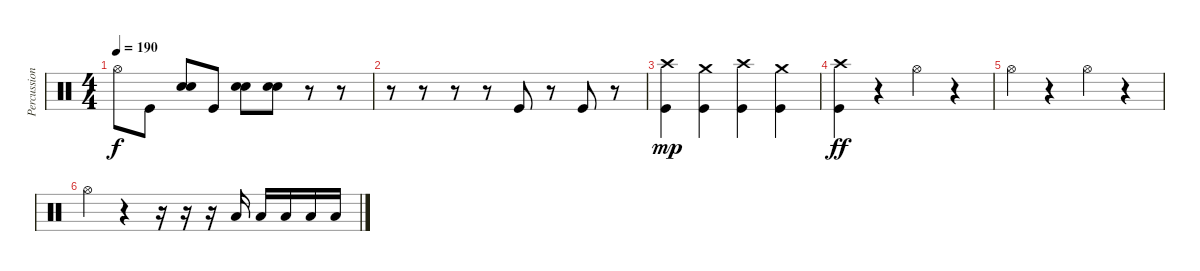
\track ("Percussion" "Percussion") {mute instrument percussion}
\staff {score}
\articulation defaults
\ts (4 4)
\tempo 190
\clef neutral
\ks c "Hi-Hat (open)".8{dy f} "Kick (hit)".8
("Snare (hit) 2" "Snare (hit) 2").8 "Kick (hit)".8 ("Snare (hit) 2" "Snare (hit) 2").8 ("Snare (hit) 2" "Snare (hit) 2").8 r.8 r.8 |
r.8 r.8 r.8 r.8 "Kick (hit)".8 r.8 "Kick (hit)".8 r.8 |
("Crash high (hit)" "Kick (hit)").4{dy mp} ("Crash medium (hit)" "Kick (hit)").4 ("Crash high (hit)" "Kick (hit)").4 ("Crash medium (hit)" "Kick (hit)").4 |
("Crash high (hit)" "Kick (hit)").4{dy ff} r.4 "Hi-Hat (open)".4 r.4 |
"Hi-Hat (open)".4 r.4 "Hi-Hat (open)".4 r.4 |
"Hi-Hat (open)".4 r.4 r.16 r.16 r.16 "Low Floor Tom (hit)".16 "Low Floor Tom (hit)".16 "Low Floor Tom (hit)".16 "Low Floor Tom (hit)".16 "Low Floor Tom (hit)".16
